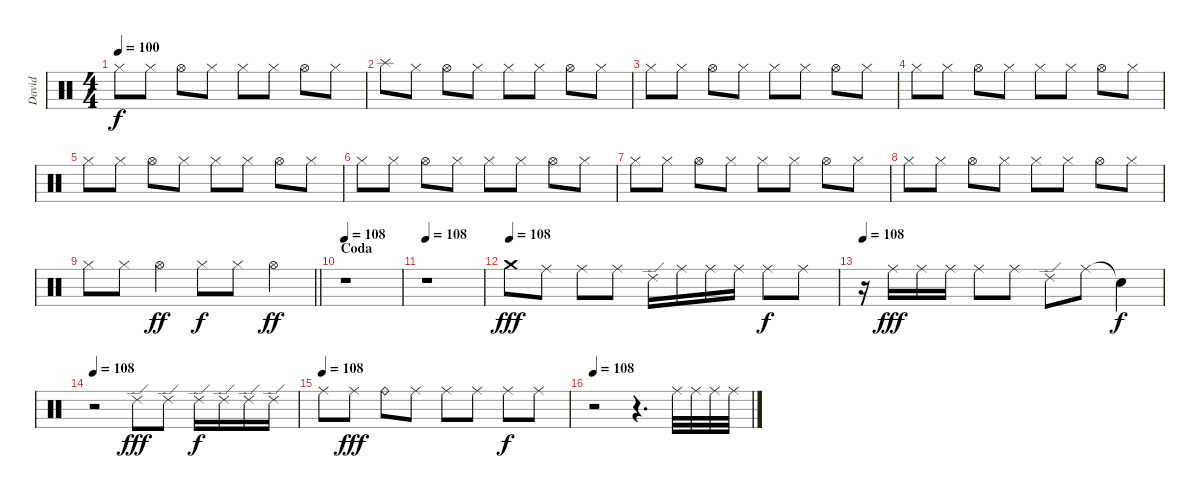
\track ("David" "David") {instrument percussion}
\staff {score}
\articulation defaults
\ts (4 4)
\tempo 100
\clef neutral
\ks c "Hi-Hat (closed)".8{dy f} "Hi-Hat (closed)".8 "Hi-Hat (open)".8 "Hi-Hat (closed)".8 "Hi-Hat (closed)".8 "Hi-Hat (closed)".8 "Hi-Hat (open)".8 "Hi-Hat (closed)".8
|
"Splash (hit)".8 "Hi-Hat (closed)".8 "Hi-Hat (open)".8 "Hi-Hat (closed)".8 "Hi-Hat (closed)".8 "Hi-Hat (closed)".8 "Hi-Hat (open)".8 "Hi-Hat (closed)".8 |
"Hi-Hat (closed)".8 "Hi-Hat (closed)".8 "Hi-Hat (open)".8 "Hi-Hat (closed)".8 "Hi-Hat (closed)".8 "Hi-Hat (closed)".8 "Hi-Hat (open)".8 "Hi-Hat (closed)".8 |
"Hi-Hat (closed)".8 "Hi-Hat (closed)".8 "Hi-Hat (open)".8 "Hi-Hat (closed)".8 "Hi-Hat (closed)".8 "Hi-Hat (closed)".8 "Hi-Hat (open)".8 "Hi-Hat (closed)".8 |
"Hi-Hat (closed)".8 "Hi-Hat (closed)".8 "Hi-Hat (open)".8 "Hi-Hat (closed)".8 "Hi-Hat (closed)".8 "Hi-Hat (closed)".8 "Hi-Hat (open)".8 "Hi-Hat (closed)".8 |
"Hi-Hat (closed)".8 "Hi-Hat (closed)".8 "Hi-Hat (open)".8 "Hi-Hat (closed)".8 "Hi-Hat (closed)".8 "Hi-Hat (closed)".8 "Hi-Hat (open)".8 "Hi-Hat (closed)".8 |
"Hi-Hat (closed)".8 "Hi-Hat (closed)".8 "Hi-Hat (open)".8 "Hi-Hat (closed)".8 "Hi-Hat (closed)".8 "Hi-Hat (closed)".8 "Hi-Hat (open)".8 "Hi-Hat (closed)".8 |
"Hi-Hat (closed)".8 "Hi-Hat (closed)".8 "Hi-Hat (open)".8 "Hi-Hat (closed)".8 "Hi-Hat (closed)".8 "Hi-Hat (closed)".8 "Hi-Hat (open)".8 "Hi-Hat (closed)".8 |
\barLineRight lightlight "Hi-Hat (closed)".8 "Hi-Hat (closed)".8 "Hi-Hat (open)".4{dy ff} "Hi-Hat (closed)".8{dy f} "Hi-Hat (closed)".8 "Hi-Hat (open)".4{dy ff}
|
\section ("" "Coda")
\tempo 108
r.1 |
\tempo 108
r.1 |
\tempo (108)
"Crash medium (hit)".8{dy fff} "Ride (middle)".8 "Ride (middle)".8 "Ride (middle)".8 "Ride (edge) 2".16 "Ride (middle)".16 "Ride (middle)".16 "Ride (middle)".16 "Ride (middle)".8{dy f} "Ride (middle)".8 |
\tempo 108
r.16 "Ride (middle)".16{dy fff} "Ride (middle)".16 "Ride (middle)".16 "Ride (middle)".8 "Ride (middle)".8 "Ride (edge) 2".8 "Ride (middle)".8 "Snare (hit)"{t}.4{dy f} |
\tempo 108
r.2 "Ride (edge) 2".8{dy fff} "Ride (edge) 2".8 "Ride (edge) 2".16{dy f} "Ride (edge) 2".16 "Ride (edge) 2".16 "Ride (edge) 2".16 |
\tempo (108)
"Ride (middle)".8 "Ride (middle)".8{dy fff} "Ride (bell)".8 "Ride (middle)".8 "Ride (middle)".8 "Ride (middle)".8 "Ride (middle)".8{dy f} "Ride (middle)".8 |
\tempo 108
r.2 r.4{d} "Ride (middle)".32 "Ride (middle)".32 "Ride (middle)".32 "Ride (middle)".32
